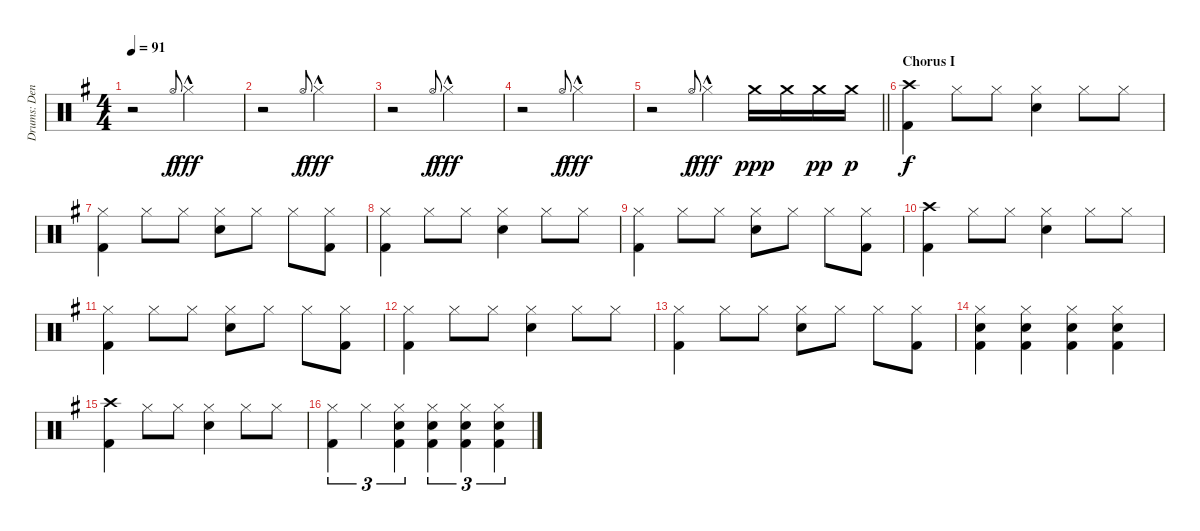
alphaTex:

\track ("Drums: Denny" "Drums: Den") {instrument percussion}
\staff {score}
\articulation defaults
\ts (4 4)
\tempo 91
\clef neutral
\ks g
r.2{dy fff} "Hi-Hat (open)".8{gr onbeat dy f} "Hi-Hat (closed)"{hac}.2{dy fff} |
r.2 "Hi-Hat (open)".8{gr onbeat dy f} "Hi-Hat (closed)"{hac}.2{dy fff} |
r.2 "Hi-Hat (open)".8{gr onbeat dy f} "Hi-Hat (closed)"{hac}.2{dy fff} |
r.2 "Hi-Hat (open)".8{gr onbeat dy f} "Hi-Hat (closed)"{hac}.2{dy fff} |
\barLineRight lightlight
r.2 "Hi-Hat (open)".8{gr onbeat dy f} "Hi-Hat (closed)"{hac}.4{dy fff} "Crash medium (hit)".16{dy ppp} "Crash medium (hit)".16 "Crash medium (hit)".16{dy pp} "Crash medium (hit)".16{dy p} |
\section ("" "Chorus I")
("Crash high (hit)" "Kick (hit) 2").4{dy f} "Hi-Hat (closed)".8 "Hi-Hat (closed)".8 ("Hi-Hat (closed)" "Electric Snare (hit)").4 "Hi-Hat (closed)".8 "Hi-Hat (closed)".8 |
("Hi-Hat (closed)" "Kick (hit) 2").4 "Hi-Hat (closed)".8 "Hi-Hat (closed)".8 ("Hi-Hat (closed)" "Electric Snare (hit)").8 "Hi-Hat (closed)".8 "Hi-Hat (closed)".8 ("Hi-Hat (closed)" "Kick (hit) 2").8 |
("Hi-Hat (closed)" "Kick (hit) 2").4 "Hi-Hat (closed)".8 "Hi-Hat (closed)".8 ("Hi-Hat (closed)" "Electric Snare (hit)").4 "Hi-Hat (closed)".8 "Hi-Hat (closed)".8 |
("Hi-Hat (closed)" "Kick (hit) 2").4 "Hi-Hat (closed)".8 "Hi-Hat (closed)".8 ("Hi-Hat (closed)" "Electric Snare (hit)").8 "Hi-Hat (closed)".8 "Hi-Hat (closed)".8 ("Hi-Hat (closed)" "Kick (hit) 2").8 |
("Crash high (hit)" "Kick (hit) 2").4 "Hi-Hat (closed)".8 "Hi-Hat (closed)".8 ("Hi-Hat (closed)" "Electric Snare (hit)").4 "Hi-Hat (closed)".8 "Hi-Hat (closed)".8 |
("Hi-Hat (closed)" "Kick (hit) 2").4 "Hi-Hat (closed)".8 "Hi-Hat (closed)".8 ("Hi-Hat (closed)" "Electric Snare (hit)").8 "Hi-Hat (closed)".8 "Hi-Hat (closed)".8 ("Hi-Hat (closed)" "Kick (hit) 2").8 |
("Hi-Hat (closed)" "Kick (hit) 2").4 "Hi-Hat (closed)".8 "Hi-Hat (closed)".8 ("Hi-Hat (closed)" "Electric Snare (hit)").4 "Hi-Hat (closed)".8 "Hi-Hat (closed)".8 |
("Hi-Hat (closed)" "Kick (hit) 2").4 "Hi-Hat (closed)".8 "Hi-Hat (closed)".8 ("Hi-Hat (closed)" "Electric Snare (hit)").8 "Hi-Hat (closed)".8 "Hi-Hat (closed)".8 ("Hi-Hat (closed)" "Kick (hit) 2").8 |
("Hi-Hat (closed)" "Electric Snare (hit)" "Kick (hit) 2").4 ("Hi-Hat (closed)" "Electric Snare (hit)" "Kick (hit) 2").4 ("Hi-Hat (closed)" "Electric Snare (hit)" "Kick (hit) 2").4 ("Hi-Hat (closed)" "Electric Snare (hit)" "Kick (hit) 2").4 |
("Crash high (hit)" "Kick (hit) 2").4 "Hi-Hat (closed)".8 "Hi-Hat (closed)".8 ("Hi-Hat (closed)" "Electric Snare (hit)").4 "Hi-Hat (closed)".8 "Hi-Hat (closed)".8 |
("Hi-Hat (closed)" "Kick (hit) 2").4{tu (3 2)} "Hi-Hat (closed)".4{tu (3 2)} ("Hi-Hat (closed)" "Electric Snare (hit)" "Kick (hit) 2").4{tu (3 2)} ("Hi-Hat (closed)" "Electric Snare (hit)" "Kick (hit) 2").4{tu (3 2)} ("Hi-Hat (closed)" "Electric Snare (hit)" "Kick (hit) 2").4{tu (3 2)} ("Hi-Hat (closed)" "Electric Snare (hit)" "Kick (hit) 2").4{tu (3 2)}
